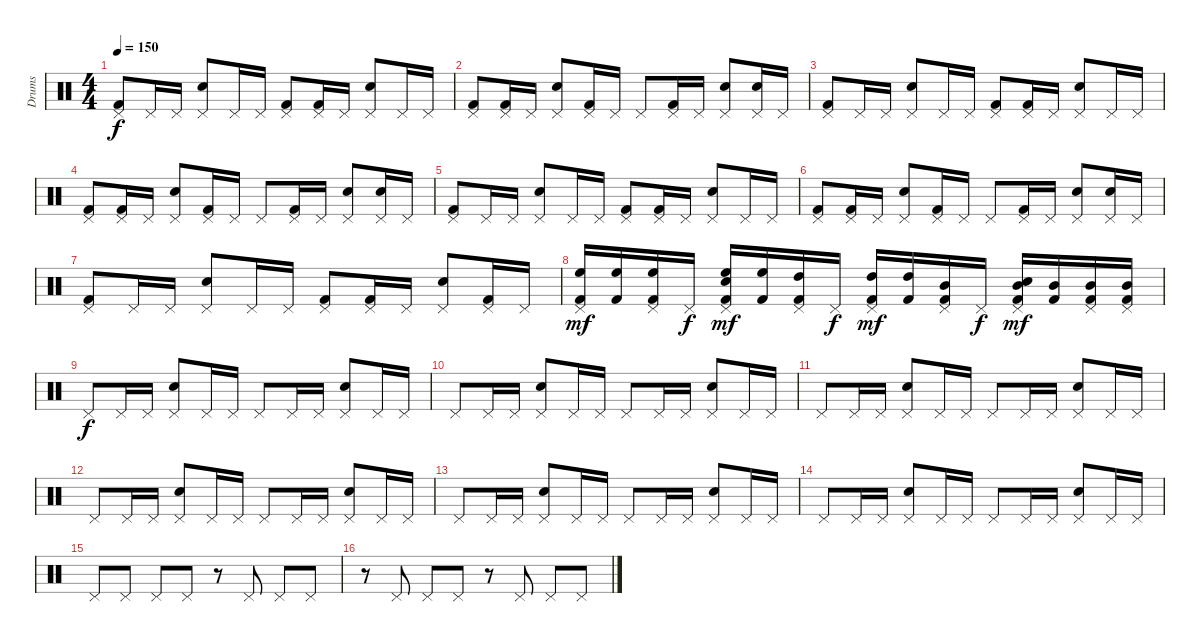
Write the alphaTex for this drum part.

\track ("Drums" "Drums") {instrument percussion}
\staff {score}
\articulation defaults
\ts (4 4)
\tempo 150
\clef neutral
\ks c
("Pedal Hi-Hat (hit)" "Kick (hit) 2").8{dy f} "Pedal Hi-Hat (hit)".16 "Pedal Hi-Hat (hit)".16 ("Pedal Hi-Hat (hit)" "Electric Snare (hit)").8 "Pedal Hi-Hat (hit)".16 "Pedal Hi-Hat (hit)".16 ("Pedal Hi-Hat (hit)" "Kick (hit) 2").8 ("Pedal Hi-Hat (hit)" "Kick (hit) 2").16 "Pedal Hi-Hat (hit)".16 ("Pedal Hi-Hat (hit)" "Electric Snare (hit)").8 "Pedal Hi-Hat (hit)".16 "Pedal Hi-Hat (hit)".16 |
("Pedal Hi-Hat (hit)" "Kick (hit) 2").8 ("Pedal Hi-Hat (hit)" "Kick (hit) 2").16 "Pedal Hi-Hat (hit)".16 ("Pedal Hi-Hat (hit)" "Electric Snare (hit)").8 ("Pedal Hi-Hat (hit)" "Kick (hit) 2").16 "Pedal Hi-Hat (hit)".16 "Pedal Hi-Hat (hit)".8 ("Pedal Hi-Hat (hit)" "Kick (hit) 2").16 "Pedal Hi-Hat (hit)".16 ("Pedal Hi-Hat (hit)" "Electric Snare (hit)").8 ("Pedal Hi-Hat (hit)" "Electric Snare (hit)").16 "Pedal Hi-Hat (hit)".16 |
("Pedal Hi-Hat (hit)" "Kick (hit) 2").8 "Pedal Hi-Hat (hit)".16 "Pedal Hi-Hat (hit)".16 ("Pedal Hi-Hat (hit)" "Electric Snare (hit)").8 "Pedal Hi-Hat (hit)".16 "Pedal Hi-Hat (hit)".16 ("Pedal Hi-Hat (hit)" "Kick (hit) 2").8 ("Pedal Hi-Hat (hit)" "Kick (hit) 2").16 "Pedal Hi-Hat (hit)".16 ("Pedal Hi-Hat (hit)" "Electric Snare (hit)").8 "Pedal Hi-Hat (hit)".16 "Pedal Hi-Hat (hit)".16 |
("Pedal Hi-Hat (hit)" "Kick (hit) 2").8 ("Pedal Hi-Hat (hit)" "Kick (hit) 2").16 "Pedal Hi-Hat (hit)".16 ("Pedal Hi-Hat (hit)" "Electric Snare (hit)").8 ("Pedal Hi-Hat (hit)" "Kick (hit) 2").16 "Pedal Hi-Hat (hit)".16 "Pedal Hi-Hat (hit)".8 ("Pedal Hi-Hat (hit)" "Kick (hit) 2").16 "Pedal Hi-Hat (hit)".16 ("Pedal Hi-Hat (hit)" "Electric Snare (hit)").8 ("Pedal Hi-Hat (hit)" "Electric Snare (hit)").16 "Pedal Hi-Hat (hit)".16 |
("Pedal Hi-Hat (hit)" "Kick (hit) 2").8 "Pedal Hi-Hat (hit)".16 "Pedal Hi-Hat (hit)".16 ("Pedal Hi-Hat (hit)" "Electric Snare (hit)").8 "Pedal Hi-Hat (hit)".16 "Pedal Hi-Hat (hit)".16 ("Pedal Hi-Hat (hit)" "Kick (hit) 2").8 ("Pedal Hi-Hat (hit)" "Kick (hit) 2").16 "Pedal Hi-Hat (hit)".16 ("Pedal Hi-Hat (hit)" "Electric Snare (hit)").8 "Pedal Hi-Hat (hit)".16 "Pedal Hi-Hat (hit)".16 |
("Pedal Hi-Hat (hit)" "Kick (hit) 2").8 ("Pedal Hi-Hat (hit)" "Kick (hit) 2").16 "Pedal Hi-Hat (hit)".16 ("Pedal Hi-Hat (hit)" "Electric Snare (hit)").8 ("Pedal Hi-Hat (hit)" "Kick (hit) 2").16 "Pedal Hi-Hat (hit)".16 "Pedal Hi-Hat (hit)".8 ("Pedal Hi-Hat (hit)" "Kick (hit) 2").16 "Pedal Hi-Hat (hit)".16 ("Pedal Hi-Hat (hit)" "Electric Snare (hit)").8 ("Pedal Hi-Hat (hit)" "Electric Snare (hit)").16 "Pedal Hi-Hat (hit)".16 |
("Pedal Hi-Hat (hit)" "Kick (hit) 2").8 "Pedal Hi-Hat (hit)".16 "Pedal Hi-Hat (hit)".16 ("Pedal Hi-Hat (hit)" "Electric Snare (hit)").8 "Pedal Hi-Hat (hit)".16 "Pedal Hi-Hat (hit)".16 ("Pedal Hi-Hat (hit)" "Kick (hit) 2").8 ("Pedal Hi-Hat (hit)" "Kick (hit) 2").16 "Pedal Hi-Hat (hit)".16 ("Pedal Hi-Hat (hit)" "Electric Snare (hit)").8 ("Pedal Hi-Hat (hit)" "Kick (hit) 2").16 "Pedal Hi-Hat (hit)".16 |
("Pedal Hi-Hat (hit)" "High Floor Tom (hit)" "Kick (hit) 2").16{dy mf} ("High Floor Tom (hit)" "Kick (hit) 2").16 ("Pedal Hi-Hat (hit)" "High Floor Tom (hit)" "Kick (hit) 2").16 "Pedal Hi-Hat (hit)".16{dy f} ("Pedal Hi-Hat (hit)" "Electric Snare (hit)" "High Floor Tom (hit)" "Kick (hit) 2").16{dy mf} ("High Floor Tom (hit)" "Kick (hit) 2").16 ("Pedal Hi-Hat (hit)" "High Tom (hit)" "Kick (hit) 2").16 "Pedal Hi-Hat (hit)".16{dy f} ("Pedal Hi-Hat (hit)" "High Tom (hit)" "Kick (hit) 2").16{dy mf} ("High Tom (hit)" "Kick (hit) 2").16 ("Pedal Hi-Hat (hit)" "Mid Tom (hit)" "Kick (hit) 2").16 "Pedal Hi-Hat (hit)".16{dy f} ("Pedal Hi-Hat (hit)" "Electric Snare (hit)" "Mid Tom (hit)" "Kick (hit) 2").16{dy mf} ("Mid Tom (hit)" "Kick (hit) 2").16 ("Pedal Hi-Hat (hit)" "Mid Tom (hit)" "Kick (hit) 2").16 ("Pedal Hi-Hat (hit)" "Mid Tom (hit)" "Kick (hit) 2").16 |
"Pedal Hi-Hat (hit)".8{dy f} "Pedal Hi-Hat (hit)".16 "Pedal Hi-Hat (hit)".16 ("Pedal Hi-Hat (hit)" "Electric Snare (hit)").8 "Pedal Hi-Hat (hit)".16 "Pedal Hi-Hat (hit)".16 "Pedal Hi-Hat (hit)".8 "Pedal Hi-Hat (hit)".16 "Pedal Hi-Hat (hit)".16 ("Pedal Hi-Hat (hit)" "Electric Snare (hit)").8 "Pedal Hi-Hat (hit)".16 "Pedal Hi-Hat (hit)".16 |
"Pedal Hi-Hat (hit)".8 "Pedal Hi-Hat (hit)".16 "Pedal Hi-Hat (hit)".16 ("Pedal Hi-Hat (hit)" "Electric Snare (hit)").8 "Pedal Hi-Hat (hit)".16 "Pedal Hi-Hat (hit)".16 "Pedal Hi-Hat (hit)".8 "Pedal Hi-Hat (hit)".16 "Pedal Hi-Hat (hit)".16 ("Pedal Hi-Hat (hit)" "Electric Snare (hit)").8 "Pedal Hi-Hat (hit)".16 "Pedal Hi-Hat (hit)".16 |
"Pedal Hi-Hat (hit)".8 "Pedal Hi-Hat (hit)".16 "Pedal Hi-Hat (hit)".16 ("Pedal Hi-Hat (hit)" "Electric Snare (hit)").8 "Pedal Hi-Hat (hit)".16 "Pedal Hi-Hat (hit)".16 "Pedal Hi-Hat (hit)".8 "Pedal Hi-Hat (hit)".16 "Pedal Hi-Hat (hit)".16 ("Pedal Hi-Hat (hit)" "Electric Snare (hit)").8 "Pedal Hi-Hat (hit)".16 "Pedal Hi-Hat (hit)".16 |
"Pedal Hi-Hat (hit)".8 "Pedal Hi-Hat (hit)".16 "Pedal Hi-Hat (hit)".16 ("Pedal Hi-Hat (hit)" "Electric Snare (hit)").8 "Pedal Hi-Hat (hit)".16 "Pedal Hi-Hat (hit)".16 "Pedal Hi-Hat (hit)".8 "Pedal Hi-Hat (hit)".16 "Pedal Hi-Hat (hit)".16 ("Pedal Hi-Hat (hit)" "Electric Snare (hit)").8 "Pedal Hi-Hat (hit)".16 "Pedal Hi-Hat (hit)".16 |
"Pedal Hi-Hat (hit)".8 "Pedal Hi-Hat (hit)".16 "Pedal Hi-Hat (hit)".16 ("Pedal Hi-Hat (hit)" "Electric Snare (hit)").8 "Pedal Hi-Hat (hit)".16 "Pedal Hi-Hat (hit)".16 "Pedal Hi-Hat (hit)".8 "Pedal Hi-Hat (hit)".16 "Pedal Hi-Hat (hit)".16 ("Pedal Hi-Hat (hit)" "Electric Snare (hit)").8 "Pedal Hi-Hat (hit)".16 "Pedal Hi-Hat (hit)".16 |
"Pedal Hi-Hat (hit)".8 "Pedal Hi-Hat (hit)".16 "Pedal Hi-Hat (hit)".16 ("Pedal Hi-Hat (hit)" "Electric Snare (hit)").8 "Pedal Hi-Hat (hit)".16 "Pedal Hi-Hat (hit)".16 "Pedal Hi-Hat (hit)".8 "Pedal Hi-Hat (hit)".16 "Pedal Hi-Hat (hit)".16 ("Pedal Hi-Hat (hit)" "Electric Snare (hit)").8 "Pedal Hi-Hat (hit)".16 "Pedal Hi-Hat (hit)".16 |
"Pedal Hi-Hat (hit)".8 "Pedal Hi-Hat (hit)".8 "Pedal Hi-Hat (hit)".8 "Pedal Hi-Hat (hit)".8 r.8 "Pedal Hi-Hat (hit)".8 "Pedal Hi-Hat (hit)".8 "Pedal Hi-Hat (hit)".8 |
r.8 "Pedal Hi-Hat (hit)".8 "Pedal Hi-Hat (hit)".8 "Pedal Hi-Hat (hit)".8 r.8 "Pedal Hi-Hat (hit)".8 "Pedal Hi-Hat (hit)".8 "Pedal Hi-Hat (hit)".8
